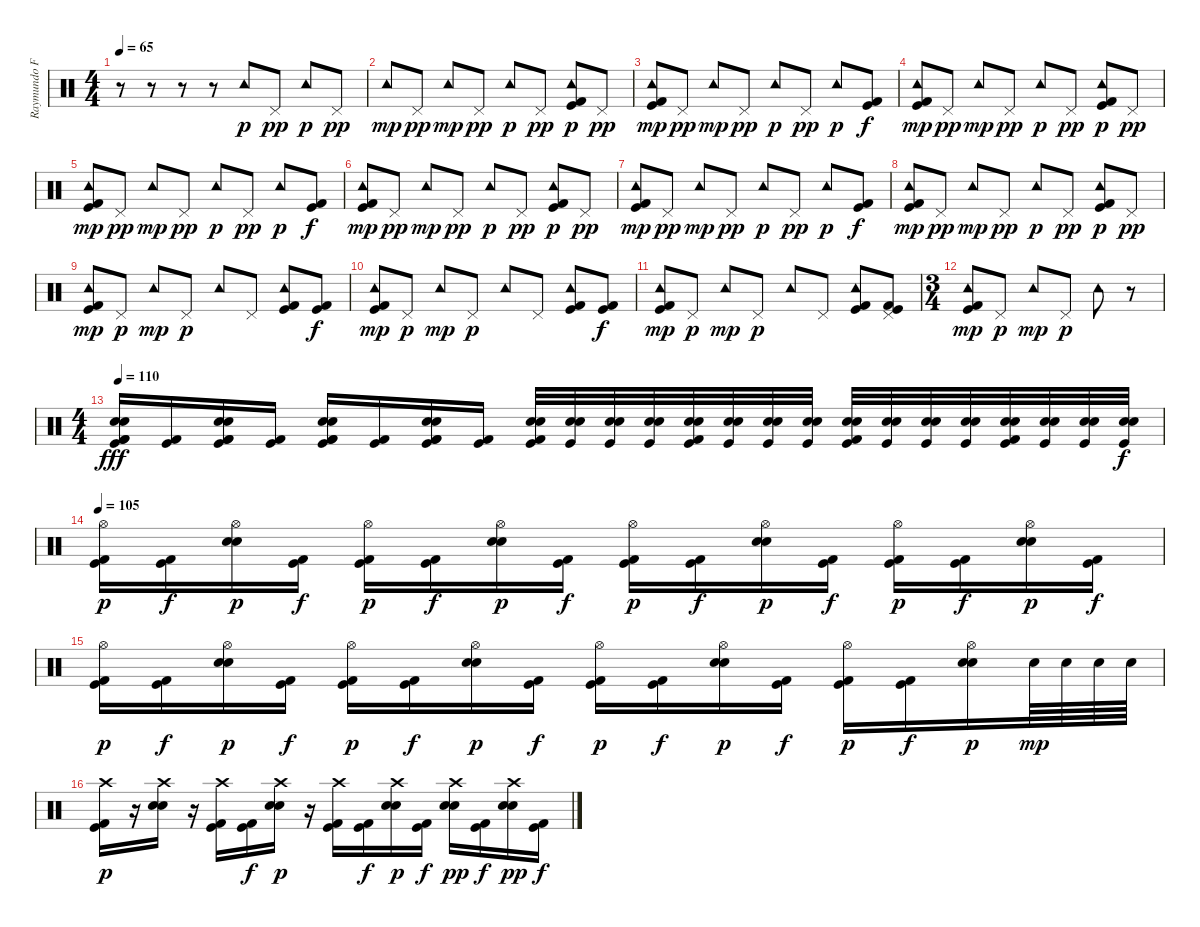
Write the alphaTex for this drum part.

\track ("Raymundo Fajardo (Bateria)" "Raymundo F") {instrument percussion}
\staff {score}
\articulation defaults
\ts (4 4)
\tempo 65
\clef neutral
\ks c
r.8{dy p} r.8 r.8 r.8 "Tambourine (hit)".8 "Pedal Hi-Hat (hit)".8{dy pp} "Tambourine (hit)".8{dy p} "Pedal Hi-Hat (hit)".8{dy pp} |
"Tambourine (hit)".8{dy mp} "Pedal Hi-Hat (hit)".8{dy pp} "Tambourine (hit)".8{dy mp} "Pedal Hi-Hat (hit)".8{dy pp} "Tambourine (hit)".8{dy p} "Pedal Hi-Hat (hit)".8{dy pp} ("Kick (hit) 2" "Kick (hit)" "Tambourine (hit)").8{dy p} "Pedal Hi-Hat (hit)".8{dy pp} |
("Kick (hit) 2" "Kick (hit)" "Tambourine (hit)").8{dy mp} "Pedal Hi-Hat (hit)".8{dy pp} "Tambourine (hit)".8{dy mp} "Pedal Hi-Hat (hit)".8{dy pp} "Tambourine (hit)".8{dy p} "Pedal Hi-Hat (hit)".8{dy pp} "Tambourine (hit)".8{dy p} ("Kick (hit) 2" "Kick (hit)").8{dy f} |
("Kick (hit) 2" "Kick (hit)" "Tambourine (hit)").8{dy mp} "Pedal Hi-Hat (hit)".8{dy pp} "Tambourine (hit)".8{dy mp} "Pedal Hi-Hat (hit)".8{dy pp} "Tambourine (hit)".8{dy p} "Pedal Hi-Hat (hit)".8{dy pp} ("Kick (hit) 2" "Kick (hit)" "Tambourine (hit)").8{dy p} "Pedal Hi-Hat (hit)".8{dy pp} |
("Kick (hit) 2" "Kick (hit)" "Tambourine (hit)").8{dy mp} "Pedal Hi-Hat (hit)".8{dy pp} "Tambourine (hit)".8{dy mp} "Pedal Hi-Hat (hit)".8{dy pp} "Tambourine (hit)".8{dy p} "Pedal Hi-Hat (hit)".8{dy pp} "Tambourine (hit)".8{dy p} ("Kick (hit) 2" "Kick (hit)").8{dy f} |
("Kick (hit) 2" "Kick (hit)" "Tambourine (hit)").8{dy mp} "Pedal Hi-Hat (hit)".8{dy pp} "Tambourine (hit)".8{dy mp} "Pedal Hi-Hat (hit)".8{dy pp} "Tambourine (hit)".8{dy p} "Pedal Hi-Hat (hit)".8{dy pp} ("Kick (hit)" "Kick (hit) 2" "Tambourine (hit)").8{dy p} "Pedal Hi-Hat (hit)".8{dy pp} |
("Kick (hit) 2" "Kick (hit)" "Tambourine (hit)").8{dy mp} "Pedal Hi-Hat (hit)".8{dy pp} "Tambourine (hit)".8{dy mp} "Pedal Hi-Hat (hit)".8{dy pp} "Tambourine (hit)".8{dy p} "Pedal Hi-Hat (hit)".8{dy pp} "Tambourine (hit)".8{dy p} ("Kick (hit)" "Kick (hit) 2").8{dy f} |
("Kick (hit) 2" "Kick (hit)" "Tambourine (hit)").8{dy mp} "Pedal Hi-Hat (hit)".8{dy pp} "Tambourine (hit)".8{dy mp} "Pedal Hi-Hat (hit)".8{dy pp} "Tambourine (hit)".8{dy p} "Pedal Hi-Hat (hit)".8{dy pp} ("Kick (hit)" "Kick (hit) 2" "Tambourine (hit)").8{dy p} "Pedal Hi-Hat (hit)".8{dy pp} |
("Kick (hit) 2" "Kick (hit)" "Tambourine (hit)").8{dy mp} "Pedal Hi-Hat (hit)".8{dy p} "Tambourine (hit)".8{dy mp} "Pedal Hi-Hat (hit)".8{dy p} "Tambourine (hit)".8 "Pedal Hi-Hat (hit)".8 ("Kick (hit) 2" "Kick (hit)" "Tambourine (hit)").8 ("Kick (hit) 2" "Kick (hit)").8{dy f} |
("Kick (hit) 2" "Kick (hit)" "Tambourine (hit)").8{dy mp} "Pedal Hi-Hat (hit)".8{dy p} "Tambourine (hit)".8{dy mp} "Pedal Hi-Hat (hit)".8{dy p} "Tambourine (hit)".8 "Pedal Hi-Hat (hit)".8 ("Kick (hit)" "Kick (hit) 2" "Tambourine (hit)").8 ("Kick (hit)" "Kick (hit) 2").8{dy f} |
("Kick (hit)" "Kick (hit) 2" "Tambourine (hit)").8{dy mp} "Pedal Hi-Hat (hit)".8{dy p} "Tambourine (hit)".8{dy mp} "Pedal Hi-Hat (hit)".8{dy p} "Tambourine (hit)".8 "Pedal Hi-Hat (hit)".8 ("Kick (hit) 2" "Kick (hit)" "Tambourine (hit)").8 ("Kick (hit)" "Kick (hit) 2" "Pedal Hi-Hat (hit)").8 |
\ts (3 4)
("Kick (hit)" "Kick (hit) 2" "Tambourine (hit)").8{dy mp} "Pedal Hi-Hat (hit)".8{dy p} "Tambourine (hit)".8{dy mp} "Pedal Hi-Hat (hit)".8{dy p} "Tambourine (hit)".8 r.8 |
\ts (4 4)
\tempo 110
("Kick (hit)" "Electric Snare (hit)" "Snare (hit) 2" "Kick (hit) 2" "Kick (hit) 2").16{dy fff} ("Kick (hit)" "Kick (hit) 2").16 ("Kick (hit)" "Electric Snare (hit)" "Snare (hit) 2" "Kick (hit) 2" "Kick (hit) 2").16 ("Kick (hit)" "Kick (hit) 2").16 ("Kick (hit)" "Electric Snare (hit)" "Snare (hit) 2" "Kick (hit) 2" "Kick (hit) 2").16 ("Kick (hit)" "Kick (hit) 2").16 ("Kick (hit)" "Electric Snare (hit)" "Snare (hit) 2" "Kick (hit) 2" "Kick (hit) 2").16 ("Kick (hit)" "Kick (hit) 2").16 ("Snare (hit) 2" "Kick (hit) 2" "Electric Snare (hit)" "Kick (hit)").32 ("Snare (hit) 2" "Electric Snare (hit)" "Kick (hit)").32 ("Snare (hit) 2" "Electric Snare (hit)" "Kick (hit)").32 ("Snare (hit) 2" "Electric Snare (hit)" "Kick (hit)").32 ("Snare (hit) 2" "Kick (hit) 2" "Electric Snare (hit)" "Kick (hit)").32 ("Snare (hit) 2" "Electric Snare (hit)" "Kick (hit)").32 ("Snare (hit) 2" "Electric Snare (hit)" "Kick (hit)").32 ("Snare (hit) 2" "Electric Snare (hit)" "Kick (hit)").32 ("Snare (hit) 2" "Kick (hit) 2" "Electric Snare (hit)" "Kick (hit)").32 ("Snare (hit) 2" "Electric Snare (hit)" "Kick (hit)").32 ("Snare (hit) 2" "Electric Snare (hit)" "Kick (hit)").32 ("Snare (hit) 2" "Electric Snare (hit)" "Kick (hit)").32 ("Snare (hit) 2" "Kick (hit) 2" "Electric Snare (hit)" "Kick (hit)").32 ("Snare (hit) 2" "Electric Snare (hit)" "Kick (hit)").32 ("Snare (hit) 2" "Electric Snare (hit)" "Kick (hit)").32 ("Snare (hit) 2" "Electric Snare (hit)" "Kick (hit)").32{dy f} |
\tempo 105
("Kick (hit) 2" "Kick (hit)" "Hi-Hat (open)").16{dy p} ("Kick (hit) 2" "Kick (hit)").16{dy f} ("Electric Snare (hit)" "Snare (hit) 2" "Hi-Hat (open)").16{dy p} ("Kick (hit) 2" "Kick (hit)").16{dy f} ("Kick (hit) 2" "Kick (hit)" "Hi-Hat (open)").16{dy p} ("Kick (hit) 2" "Kick (hit)").16{dy f} ("Electric Snare (hit)" "Snare (hit) 2" "Hi-Hat (open)").16{dy p} ("Kick (hit) 2" "Kick (hit)").16{dy f} ("Kick (hit) 2" "Kick (hit)" "Hi-Hat (open)").16{dy p} ("Kick (hit) 2" "Kick (hit)").16{dy f} ("Electric Snare (hit)" "Snare (hit) 2" "Hi-Hat (open)").16{dy p} ("Kick (hit) 2" "Kick (hit)").16{dy f} ("Kick (hit) 2" "Kick (hit)" "Hi-Hat (open)").16{dy p} ("Kick (hit) 2" "Kick (hit)").16{dy f} ("Electric Snare (hit)" "Snare (hit) 2" "Hi-Hat (open)").16{dy p} ("Kick (hit) 2" "Kick (hit)").16{dy f} |
("Kick (hit) 2" "Kick (hit)" "Hi-Hat (open)").16{dy p} ("Kick (hit) 2" "Kick (hit)").16{dy f} ("Electric Snare (hit)" "Snare (hit) 2" "Hi-Hat (open)").16{dy p} ("Kick (hit) 2" "Kick (hit)").16{dy f} ("Kick (hit) 2" "Kick (hit)" "Hi-Hat (open)").16{dy p} ("Kick (hit) 2" "Kick (hit)").16{dy f} ("Electric Snare (hit)" "Snare (hit) 2" "Hi-Hat (open)").16{dy p} ("Kick (hit) 2" "Kick (hit)").16{dy f} ("Kick (hit) 2" "Kick (hit)" "Hi-Hat (open)").16{dy p} ("Kick (hit) 2" "Kick (hit)").16{dy f} ("Electric Snare (hit)" "Snare (hit) 2" "Hi-Hat (open)").16{dy p} ("Kick (hit) 2" "Kick (hit)").16{dy f} ("Kick (hit) 2" "Kick (hit)" "Hi-Hat (open)").16{dy p} ("Kick (hit) 2" "Kick (hit)").16{dy f} ("Electric Snare (hit)" "Snare (hit) 2" "Hi-Hat (open)").16{dy p} "Electric Snare (hit)".64{dy mp} "Electric Snare (hit)".64 "Electric Snare (hit)".64 "Electric Snare (hit)".64 |
("Kick (hit)" "Kick (hit) 2" "Crash high (hit)").16{dy p} r.16 ("Electric Snare (hit)" "Snare (hit) 2" "Crash high (hit)").16 r.16 ("Kick (hit)" "Kick (hit) 2" "Crash high (hit)").16 ("Kick (hit)" "Kick (hit) 2").16{dy f} ("Electric Snare (hit)" "Snare (hit) 2" "Crash high (hit)").16{dy p} r.16 ("Kick (hit)" "Kick (hit) 2" "Crash high (hit)").16 ("Kick (hit)" "Kick (hit) 2").16{dy f} ("Electric Snare (hit)" "Snare (hit) 2" "Crash high (hit)").16{dy p} ("Kick (hit)" "Kick (hit) 2").16{dy f} ("Electric Snare (hit)" "Snare (hit) 2" "Crash high (hit)").16{dy pp} ("Kick (hit)" "Kick (hit) 2").16{dy f} ("Electric Snare (hit)" "Snare (hit) 2" "Crash high (hit)").16{dy pp} ("Kick (hit)" "Kick (hit) 2").16{dy f}
